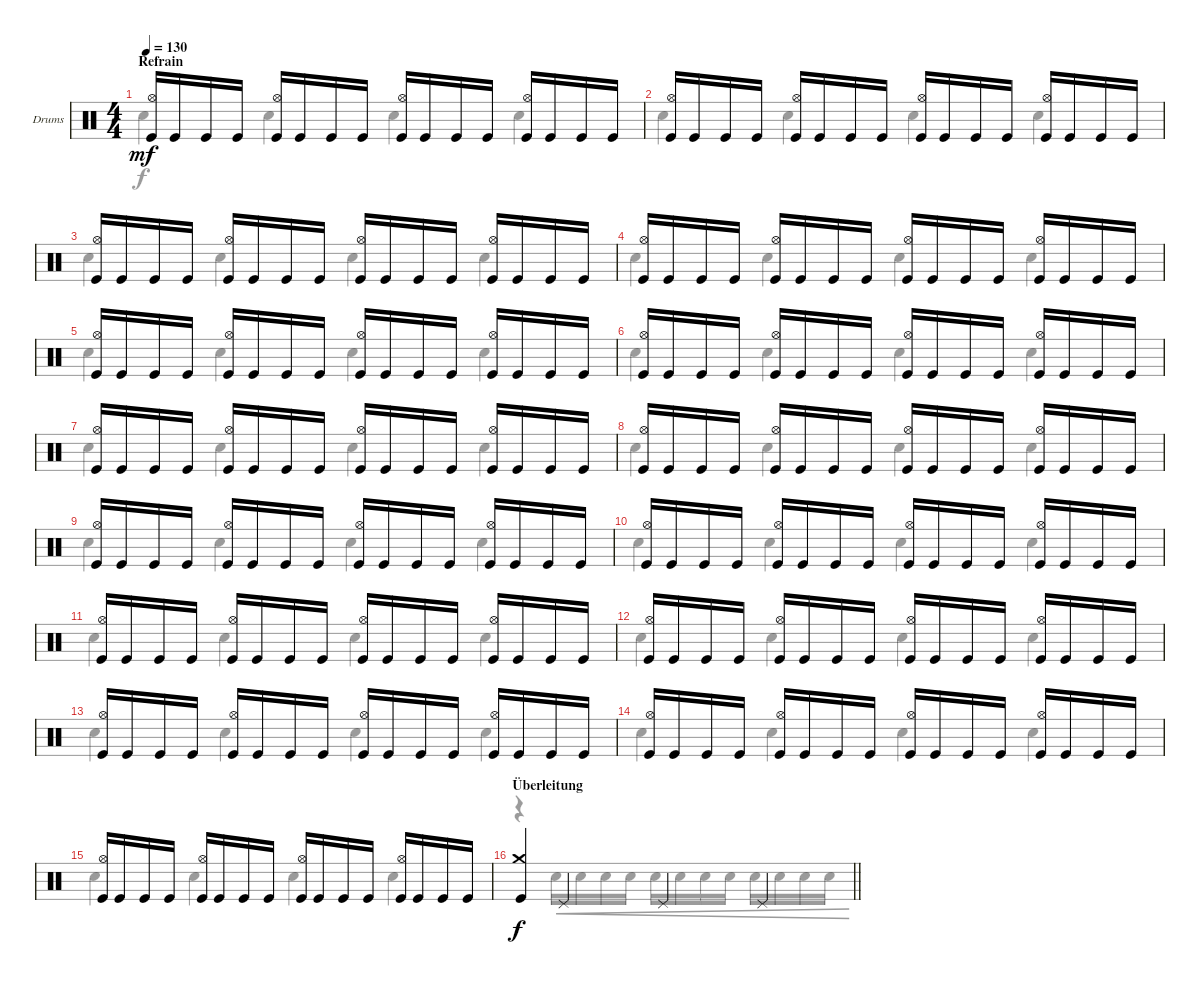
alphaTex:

\bracketExtendMode groupsimilarinstruments
\firstSystemTrackNameOrientation horizontal
\otherSystemsTrackNameOrientation horizontal
\track ("Drumkit" "Drums") {instrument percussion}
\staff {score}
\articulation defaults
\voice
\ts (4 4)
\section ("" "Refrain")
\tempo 130
\clef neutral
\ks aminor
("Kick (hit)" "Hi-Hat (open)").16{dy mf} "Kick (hit)".16 "Kick (hit)".16 "Kick (hit)".16 ("Kick (hit)" "Hi-Hat (open)").16 "Kick (hit)".16 "Kick (hit)".16 "Kick (hit)".16 ("Kick (hit)" "Hi-Hat (open)").16 "Kick (hit)".16 "Kick (hit)".16 "Kick (hit)".16 ("Kick (hit)" "Hi-Hat (open)").16 "Kick (hit)".16 "Kick (hit)".16 "Kick (hit)".16 |
("Kick (hit)" "Hi-Hat (open)").16 "Kick (hit)".16 "Kick (hit)".16 "Kick (hit)".16 ("Kick (hit)" "Hi-Hat (open)").16 "Kick (hit)".16 "Kick (hit)".16 "Kick (hit)".16 ("Kick (hit)" "Hi-Hat (open)").16 "Kick (hit)".16 "Kick (hit)".16 "Kick (hit)".16 ("Kick (hit)" "Hi-Hat (open)").16 "Kick (hit)".16 "Kick (hit)".16 "Kick (hit)".16 |
("Kick (hit)" "Hi-Hat (open)").16 "Kick (hit)".16 "Kick (hit)".16 "Kick (hit)".16 ("Kick (hit)" "Hi-Hat (open)").16 "Kick (hit)".16 "Kick (hit)".16 "Kick (hit)".16 ("Kick (hit)" "Hi-Hat (open)").16 "Kick (hit)".16 "Kick (hit)".16 "Kick (hit)".16 ("Kick (hit)" "Hi-Hat (open)").16 "Kick (hit)".16 "Kick (hit)".16 "Kick (hit)".16 |
("Kick (hit)" "Hi-Hat (open)").16 "Kick (hit)".16 "Kick (hit)".16 "Kick (hit)".16 ("Kick (hit)" "Hi-Hat (open)").16 "Kick (hit)".16 "Kick (hit)".16 "Kick (hit)".16 ("Kick (hit)" "Hi-Hat (open)").16 "Kick (hit)".16 "Kick (hit)".16 "Kick (hit)".16 ("Kick (hit)" "Hi-Hat (open)").16 "Kick (hit)".16 "Kick (hit)".16 "Kick (hit)".16 |
("Kick (hit)" "Hi-Hat (open)").16 "Kick (hit)".16 "Kick (hit)".16 "Kick (hit)".16 ("Kick (hit)" "Hi-Hat (open)").16 "Kick (hit)".16 "Kick (hit)".16 "Kick (hit)".16 ("Kick (hit)" "Hi-Hat (open)").16 "Kick (hit)".16 "Kick (hit)".16 "Kick (hit)".16 ("Kick (hit)" "Hi-Hat (open)").16 "Kick (hit)".16 "Kick (hit)".16 "Kick (hit)".16 |
("Kick (hit)" "Hi-Hat (open)").16 "Kick (hit)".16 "Kick (hit)".16 "Kick (hit)".16 ("Kick (hit)" "Hi-Hat (open)").16 "Kick (hit)".16 "Kick (hit)".16 "Kick (hit)".16 ("Kick (hit)" "Hi-Hat (open)").16 "Kick (hit)".16 "Kick (hit)".16 "Kick (hit)".16 ("Kick (hit)" "Hi-Hat (open)").16 "Kick (hit)".16 "Kick (hit)".16 "Kick (hit)".16 |
("Kick (hit)" "Hi-Hat (open)").16 "Kick (hit)".16 "Kick (hit)".16 "Kick (hit)".16 ("Kick (hit)" "Hi-Hat (open)").16 "Kick (hit)".16 "Kick (hit)".16 "Kick (hit)".16 ("Kick (hit)" "Hi-Hat (open)").16 "Kick (hit)".16 "Kick (hit)".16 "Kick (hit)".16 ("Kick (hit)" "Hi-Hat (open)").16 "Kick (hit)".16 "Kick (hit)".16 "Kick (hit)".16 |
("Kick (hit)" "Hi-Hat (open)").16 "Kick (hit)".16 "Kick (hit)".16 "Kick (hit)".16 ("Kick (hit)" "Hi-Hat (open)").16 "Kick (hit)".16 "Kick (hit)".16 "Kick (hit)".16 ("Kick (hit)" "Hi-Hat (open)").16 "Kick (hit)".16 "Kick (hit)".16 "Kick (hit)".16 ("Kick (hit)" "Hi-Hat (open)").16 "Kick (hit)".16 "Kick (hit)".16 "Kick (hit)".16 |
("Kick (hit)" "Hi-Hat (open)").16 "Kick (hit)".16 "Kick (hit)".16 "Kick (hit)".16 ("Kick (hit)" "Hi-Hat (open)").16 "Kick (hit)".16 "Kick (hit)".16 "Kick (hit)".16 ("Kick (hit)" "Hi-Hat (open)").16 "Kick (hit)".16 "Kick (hit)".16 "Kick (hit)".16 ("Kick (hit)" "Hi-Hat (open)").16 "Kick (hit)".16 "Kick (hit)".16 "Kick (hit)".16 |
("Kick (hit)" "Hi-Hat (open)").16 "Kick (hit)".16 "Kick (hit)".16 "Kick (hit)".16 ("Kick (hit)" "Hi-Hat (open)").16 "Kick (hit)".16 "Kick (hit)".16 "Kick (hit)".16 ("Kick (hit)" "Hi-Hat (open)").16 "Kick (hit)".16 "Kick (hit)".16 "Kick (hit)".16 ("Kick (hit)" "Hi-Hat (open)").16 "Kick (hit)".16 "Kick (hit)".16 "Kick (hit)".16 |
("Kick (hit)" "Hi-Hat (open)").16 "Kick (hit)".16 "Kick (hit)".16 "Kick (hit)".16 ("Kick (hit)" "Hi-Hat (open)").16 "Kick (hit)".16 "Kick (hit)".16 "Kick (hit)".16 ("Kick (hit)" "Hi-Hat (open)").16 "Kick (hit)".16 "Kick (hit)".16 "Kick (hit)".16 ("Kick (hit)" "Hi-Hat (open)").16 "Kick (hit)".16 "Kick (hit)".16 "Kick (hit)".16 |
("Kick (hit)" "Hi-Hat (open)").16 "Kick (hit)".16 "Kick (hit)".16 "Kick (hit)".16 ("Kick (hit)" "Hi-Hat (open)").16 "Kick (hit)".16 "Kick (hit)".16 "Kick (hit)".16 ("Kick (hit)" "Hi-Hat (open)").16 "Kick (hit)".16 "Kick (hit)".16 "Kick (hit)".16 ("Kick (hit)" "Hi-Hat (open)").16 "Kick (hit)".16 "Kick (hit)".16 "Kick (hit)".16 |
("Kick (hit)" "Hi-Hat (open)").16 "Kick (hit)".16 "Kick (hit)".16 "Kick (hit)".16 ("Kick (hit)" "Hi-Hat (open)").16 "Kick (hit)".16 "Kick (hit)".16 "Kick (hit)".16 ("Kick (hit)" "Hi-Hat (open)").16 "Kick (hit)".16 "Kick (hit)".16 "Kick (hit)".16 ("Kick (hit)" "Hi-Hat (open)").16 "Kick (hit)".16 "Kick (hit)".16 "Kick (hit)".16 |
("Kick (hit)" "Hi-Hat (open)").16 "Kick (hit)".16 "Kick (hit)".16 "Kick (hit)".16 ("Kick (hit)" "Hi-Hat (open)").16 "Kick (hit)".16 "Kick (hit)".16 "Kick (hit)".16 ("Kick (hit)" "Hi-Hat (open)").16 "Kick (hit)".16 "Kick (hit)".16 "Kick (hit)".16 ("Kick (hit)" "Hi-Hat (open)").16 "Kick (hit)".16 "Kick (hit)".16 "Kick (hit)".16 |
("Kick (hit)" "Hi-Hat (open)").16 "Kick (hit)".16 "Kick (hit)".16 "Kick (hit)".16 ("Kick (hit)" "Hi-Hat (open)").16 "Kick (hit)".16 "Kick (hit)".16 "Kick (hit)".16 ("Kick (hit)" "Hi-Hat (open)").16 "Kick (hit)".16 "Kick (hit)".16 "Kick (hit)".16 ("Kick (hit)" "Hi-Hat (open)").16 "Kick (hit)".16 "Kick (hit)".16 "Kick (hit)".16 |
\section ("" "Überleitung")
\barLineRight lightlight
("Crash medium (hit)" "Kick (hit)").4{dy f} "Pedal Hi-Hat (hit)".4 "Pedal Hi-Hat (hit)".4 "Pedal Hi-Hat (hit)".4
\voice
\clef neutral
\ottava regular
\simile none
\ks aminor "Snare (hit) 2".4{dy f} "Snare (hit) 2".4 "Snare (hit) 2".4 "Snare (hit) 2".4
|
"Snare (hit) 2".4 "Snare (hit) 2".4 "Snare (hit) 2".4 "Snare (hit) 2".4 |
"Snare (hit) 2".4 "Snare (hit) 2".4 "Snare (hit) 2".4 "Snare (hit) 2".4 |
"Snare (hit) 2".4 "Snare (hit) 2".4 "Snare (hit) 2".4 "Snare (hit) 2".4 |
"Snare (hit) 2".4 "Snare (hit) 2".4 "Snare (hit) 2".4 "Snare (hit) 2".4 |
"Snare (hit) 2".4 "Snare (hit) 2".4 "Snare (hit) 2".4 "Snare (hit) 2".4 |
"Snare (hit) 2".4 "Snare (hit) 2".4 "Snare (hit) 2".4 "Snare (hit) 2".4 |
"Snare (hit) 2".4 "Snare (hit) 2".4 "Snare (hit) 2".4 "Snare (hit) 2".4 |
"Snare (hit) 2".4 "Snare (hit) 2".4 "Snare (hit) 2".4 "Snare (hit) 2".4 |
"Snare (hit) 2".4 "Snare (hit) 2".4 "Snare (hit) 2".4 "Snare (hit) 2".4 |
"Snare (hit) 2".4 "Snare (hit) 2".4 "Snare (hit) 2".4 "Snare (hit) 2".4 |
"Snare (hit) 2".4 "Snare (hit) 2".4 "Snare (hit) 2".4 "Snare (hit) 2".4 |
"Snare (hit) 2".4 "Snare (hit) 2".4 "Snare (hit) 2".4 "Snare (hit) 2".4 |
"Snare (hit) 2".4 "Snare (hit) 2".4 "Snare (hit) 2".4 "Snare (hit) 2".4 |
"Snare (hit) 2".4 "Snare (hit) 2".4 "Snare (hit) 2".4 "Snare (hit) 2".4 |
\barLineRight lightlight
r.4 "Snare (hit) 2".16{cre} "Snare (hit) 2".16{cre} "Snare (hit) 2".16{cre} "Snare (hit) 2".16{cre} "Snare (hit) 2".16{cre} "Snare (hit) 2".16{cre} "Snare (hit) 2".16{cre} "Snare (hit) 2".16{cre} "Snare (hit) 2".16{cre} "Snare (hit) 2".16{cre} "Snare (hit) 2".16{cre} "Snare (hit) 2".16{cre}
